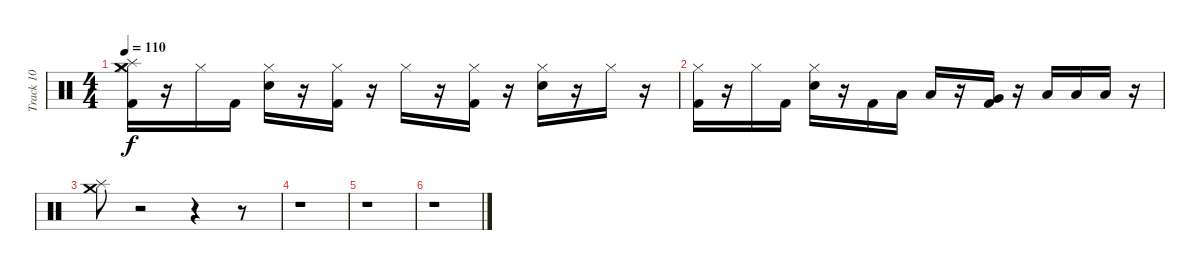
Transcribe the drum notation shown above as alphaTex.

\track ("Track 10" "Track 10") {instrument percussion}
\staff {score}
\articulation defaults
\ts (4 4)
\tempo 110
\clef neutral
\ks c
("Hi-Hat (closed)" "Kick (hit) 2" "Splash (hit)" "Crash medium (hit)").16{dy f} r.16 "Hi-Hat (closed)".16 "Kick (hit) 2".16 ("Snare (hit) 2" "Hi-Hat (closed)").16 r.16 ("Hi-Hat (closed)" "Kick (hit) 2").16 r.16 "Hi-Hat (closed)".16 r.16 ("Hi-Hat (closed)" "Kick (hit) 2").16 r.16 ("Snare (hit) 2" "Hi-Hat (closed)").16 r.16 "Hi-Hat (closed)".16 r.16 |
("Hi-Hat (closed)" "Kick (hit) 2").16 r.16 "Hi-Hat (closed)".16 "Kick (hit) 2".16 ("Snare (hit) 2" "Hi-Hat (closed)").16 r.16 "Kick (hit) 2".16 "Low Tom (hit)".16 "Low Tom (hit)".16 r.16 ("Very Low Tom (hit)" "Kick (hit) 2").16 r.16 "Low Floor Tom (hit)".16 "Low Floor Tom (hit)".16 "Low Floor Tom (hit)".16 r.16 |
("Splash (hit)" "Crash medium (hit)").8 r.2 r.4 r.8 |
r.1 |
r.1 |
r.1
